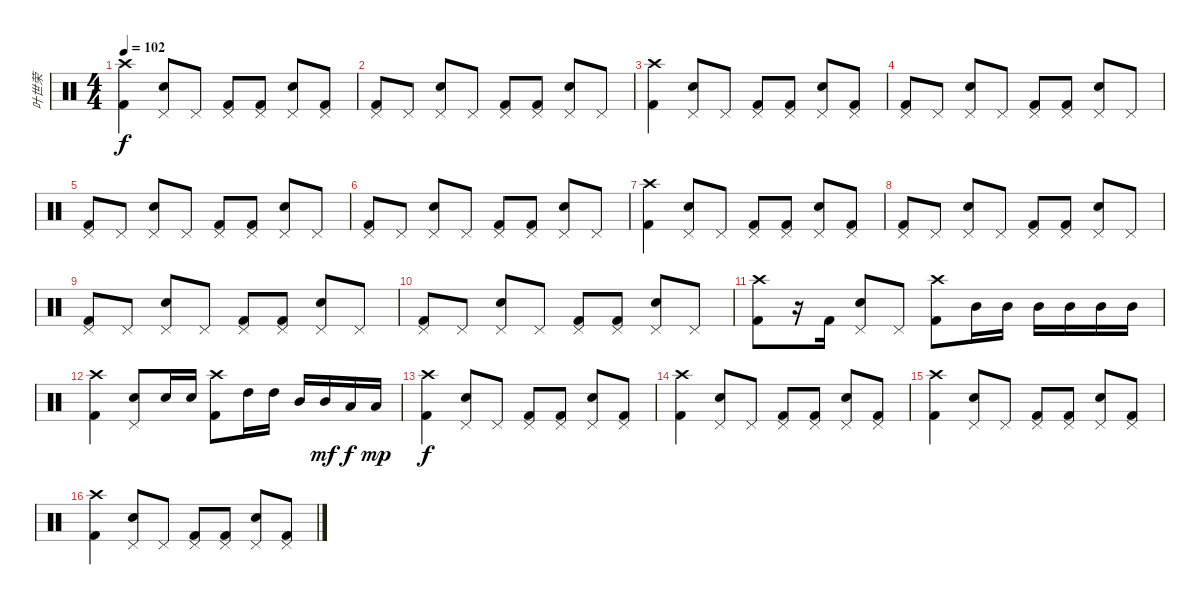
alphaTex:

\track ("叶世荣" "叶世荣") {instrument percussion}
\staff {score}
\articulation defaults
\ts (4 4)
\tempo 102
\clef neutral
\ks c
("Crash high (hit)" "Kick (hit) 2").4{dy f} ("Pedal Hi-Hat (hit)" "Snare (hit) 2").8 "Pedal Hi-Hat (hit)".8 ("Pedal Hi-Hat (hit)" "Kick (hit) 2").8 ("Pedal Hi-Hat (hit)" "Kick (hit) 2").8 ("Pedal Hi-Hat (hit)" "Snare (hit) 2").8 ("Pedal Hi-Hat (hit)" "Kick (hit) 2").8 |
("Pedal Hi-Hat (hit)" "Kick (hit) 2").8 "Pedal Hi-Hat (hit)".8 ("Pedal Hi-Hat (hit)" "Snare (hit) 2").8 "Pedal Hi-Hat (hit)".8 ("Pedal Hi-Hat (hit)" "Kick (hit) 2").8 ("Pedal Hi-Hat (hit)" "Kick (hit) 2").8 ("Pedal Hi-Hat (hit)" "Snare (hit) 2").8 "Pedal Hi-Hat (hit)".8 |
("Crash high (hit)" "Kick (hit) 2").4 ("Pedal Hi-Hat (hit)" "Snare (hit) 2").8 "Pedal Hi-Hat (hit)".8 ("Pedal Hi-Hat (hit)" "Kick (hit) 2").8 ("Pedal Hi-Hat (hit)" "Kick (hit) 2").8 ("Pedal Hi-Hat (hit)" "Snare (hit) 2").8 ("Pedal Hi-Hat (hit)" "Kick (hit) 2").8 |
("Pedal Hi-Hat (hit)" "Kick (hit) 2").8 "Pedal Hi-Hat (hit)".8 ("Pedal Hi-Hat (hit)" "Snare (hit) 2").8 "Pedal Hi-Hat (hit)".8 ("Pedal Hi-Hat (hit)" "Kick (hit) 2").8 ("Pedal Hi-Hat (hit)" "Kick (hit) 2").8 ("Pedal Hi-Hat (hit)" "Snare (hit) 2").8 "Pedal Hi-Hat (hit)".8 |
("Pedal Hi-Hat (hit)" "Kick (hit) 2").8 "Pedal Hi-Hat (hit)".8 ("Pedal Hi-Hat (hit)" "Snare (hit) 2").8 "Pedal Hi-Hat (hit)".8 ("Pedal Hi-Hat (hit)" "Kick (hit) 2").8 ("Pedal Hi-Hat (hit)" "Kick (hit) 2").8 ("Pedal Hi-Hat (hit)" "Snare (hit) 2").8 "Pedal Hi-Hat (hit)".8 |
("Pedal Hi-Hat (hit)" "Kick (hit) 2").8 "Pedal Hi-Hat (hit)".8 ("Pedal Hi-Hat (hit)" "Snare (hit) 2").8 "Pedal Hi-Hat (hit)".8 ("Pedal Hi-Hat (hit)" "Kick (hit) 2").8 ("Pedal Hi-Hat (hit)" "Kick (hit) 2").8 ("Pedal Hi-Hat (hit)" "Snare (hit) 2").8 "Pedal Hi-Hat (hit)".8 |
("Crash high (hit)" "Kick (hit) 2").4 ("Pedal Hi-Hat (hit)" "Snare (hit) 2").8 "Pedal Hi-Hat (hit)".8 ("Pedal Hi-Hat (hit)" "Kick (hit) 2").8 ("Pedal Hi-Hat (hit)" "Kick (hit) 2").8 ("Pedal Hi-Hat (hit)" "Snare (hit) 2").8 ("Pedal Hi-Hat (hit)" "Kick (hit) 2").8 |
("Pedal Hi-Hat (hit)" "Kick (hit) 2").8 "Pedal Hi-Hat (hit)".8 ("Pedal Hi-Hat (hit)" "Snare (hit) 2").8 "Pedal Hi-Hat (hit)".8 ("Pedal Hi-Hat (hit)" "Kick (hit) 2").8 ("Pedal Hi-Hat (hit)" "Kick (hit) 2").8 ("Pedal Hi-Hat (hit)" "Snare (hit) 2").8 "Pedal Hi-Hat (hit)".8 |
("Pedal Hi-Hat (hit)" "Kick (hit) 2").8 "Pedal Hi-Hat (hit)".8 ("Pedal Hi-Hat (hit)" "Snare (hit) 2").8 "Pedal Hi-Hat (hit)".8 ("Pedal Hi-Hat (hit)" "Kick (hit) 2").8 ("Pedal Hi-Hat (hit)" "Kick (hit) 2").8 ("Pedal Hi-Hat (hit)" "Snare (hit) 2").8 "Pedal Hi-Hat (hit)".8 |
("Pedal Hi-Hat (hit)" "Kick (hit) 2").8 "Pedal Hi-Hat (hit)".8 ("Pedal Hi-Hat (hit)" "Snare (hit) 2").8 "Pedal Hi-Hat (hit)".8 ("Pedal Hi-Hat (hit)" "Kick (hit) 2").8 ("Pedal Hi-Hat (hit)" "Kick (hit) 2").8 ("Pedal Hi-Hat (hit)" "Snare (hit) 2").8 "Pedal Hi-Hat (hit)".8 |
("Crash high (hit)" "Kick (hit) 2").8 r.16 "Kick (hit) 2".16 ("Pedal Hi-Hat (hit)" "Snare (hit) 2").8 "Pedal Hi-Hat (hit)".8 ("Crash high (hit)" "Kick (hit) 2").8 "Mid Tom (hit)".16 "Mid Tom (hit)".16 "Mid Tom (hit)".16 "Mid Tom (hit)".16 "Mid Tom (hit)".16 "Mid Tom (hit)".16 |
("Crash high (hit)" "Kick (hit) 2").4 ("Pedal Hi-Hat (hit)" "Snare (hit) 2").8 "Snare (hit) 2".16 "Snare (hit) 2".16 ("Crash high (hit)" "Kick (hit) 2").8 "High Tom (hit)".16 "High Tom (hit)".16 "Mid Tom (hit)".16 "Mid Tom (hit)".16{dy mf} "Low Tom (hit)".16{dy f} "Low Tom (hit)".16{dy mp} |
("Crash high (hit)" "Kick (hit) 2").4{dy f} ("Pedal Hi-Hat (hit)" "Snare (hit) 2").8 "Pedal Hi-Hat (hit)".8 ("Pedal Hi-Hat (hit)" "Kick (hit) 2").8 ("Pedal Hi-Hat (hit)" "Kick (hit) 2").8 ("Pedal Hi-Hat (hit)" "Snare (hit) 2").8 ("Pedal Hi-Hat (hit)" "Kick (hit) 2").8 |
("Crash high (hit)" "Kick (hit) 2").4 ("Pedal Hi-Hat (hit)" "Snare (hit) 2").8 "Pedal Hi-Hat (hit)".8 ("Pedal Hi-Hat (hit)" "Kick (hit) 2").8 ("Pedal Hi-Hat (hit)" "Kick (hit) 2").8 ("Pedal Hi-Hat (hit)" "Snare (hit) 2").8 ("Pedal Hi-Hat (hit)" "Kick (hit) 2").8 |
("Crash high (hit)" "Kick (hit) 2").4 ("Pedal Hi-Hat (hit)" "Snare (hit) 2").8 "Pedal Hi-Hat (hit)".8 ("Pedal Hi-Hat (hit)" "Kick (hit) 2").8 ("Pedal Hi-Hat (hit)" "Kick (hit) 2").8 ("Pedal Hi-Hat (hit)" "Snare (hit) 2").8 ("Pedal Hi-Hat (hit)" "Kick (hit) 2").8 |
("Crash high (hit)" "Kick (hit) 2").4 ("Pedal Hi-Hat (hit)" "Snare (hit) 2").8 "Pedal Hi-Hat (hit)".8 ("Pedal Hi-Hat (hit)" "Kick (hit) 2").8 ("Pedal Hi-Hat (hit)" "Kick (hit) 2").8 ("Pedal Hi-Hat (hit)" "Snare (hit) 2").8 ("Pedal Hi-Hat (hit)" "Kick (hit) 2").8
